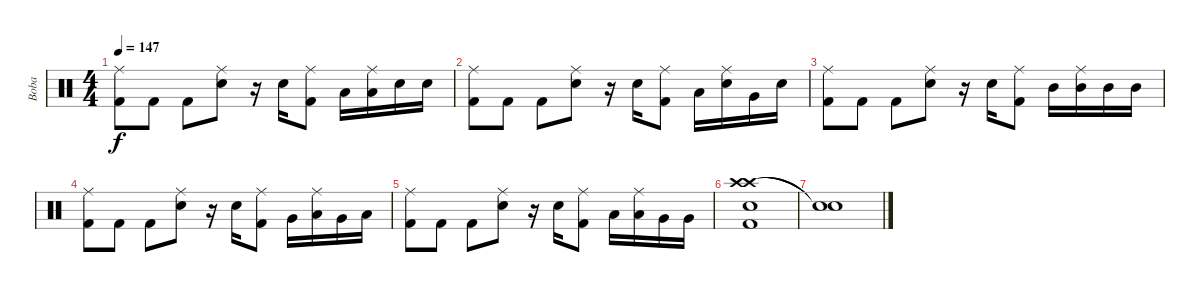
\track ("Boba" "Boba") {instrument percussion}
\staff {score}
\articulation defaults
\ts (4 4)
\tempo 147
\clef neutral
\ks c
("Ride (middle)" "Kick (hit) 2").8{dy f} "Kick (hit) 2".8 "Kick (hit) 2".8 ("Ride (middle)" "Electric Snare (hit)").8 r.16 "Electric Snare (hit)".16 ("Ride (middle)" "Kick (hit) 2").8 "Low Tom (hit)".16 ("Ride (middle)" "Low Tom (hit)").16 "Electric Snare (hit)".16 "Electric Snare (hit)".16 |
("Ride (middle)" "Kick (hit) 2").8 "Kick (hit) 2".8 "Kick (hit) 2".8 ("Ride (middle)" "Electric Snare (hit)").8 r.16 "Electric Snare (hit)".16 ("Ride (middle)" "Kick (hit) 2").8 "Low Tom (hit)".16 ("Ride (middle)" "Electric Snare (hit)").16 "Very Low Tom (hit)".16 "Electric Snare (hit)".16 |
("Ride (middle)" "Kick (hit) 2").8 "Kick (hit) 2".8 "Kick (hit) 2".8 ("Ride (middle)" "Electric Snare (hit)").8 r.16 "Electric Snare (hit)".16 ("Ride (middle)" "Kick (hit) 2").8 "Mid Tom (hit)".16 ("Ride (middle)" "Mid Tom (hit)").16 "Mid Tom (hit)".16 "Mid Tom (hit)".16 |
("Ride (middle)" "Kick (hit) 2").8 "Kick (hit) 2".8 "Kick (hit) 2".8 ("Ride (middle)" "Electric Snare (hit)").8 r.16 "Electric Snare (hit)".16 ("Ride (middle)" "Kick (hit) 2").8 "Very Low Tom (hit)".16 ("Ride (middle)" "Low Tom (hit)").16 "Very Low Tom (hit)".16 "Low Tom (hit)".16 |
("Ride (middle)" "Kick (hit) 2").8 "Kick (hit) 2".8 "Kick (hit) 2".8 ("Ride (middle)" "Electric Snare (hit)").8 r.16 "Electric Snare (hit)".16 ("Ride (middle)" "Kick (hit) 2").8 "Low Tom (hit)".16 ("Ride (middle)" "Low Tom (hit)").16 "Very Low Tom (hit)".16 "Very Low Tom (hit)".16 |
("Crash high (hit)" "Crash high (hit)" "Electric Snare (hit)" "Kick (hit) 2").1 |
("Snare (hit)"{t} "Snare (hit)"{t}).1
